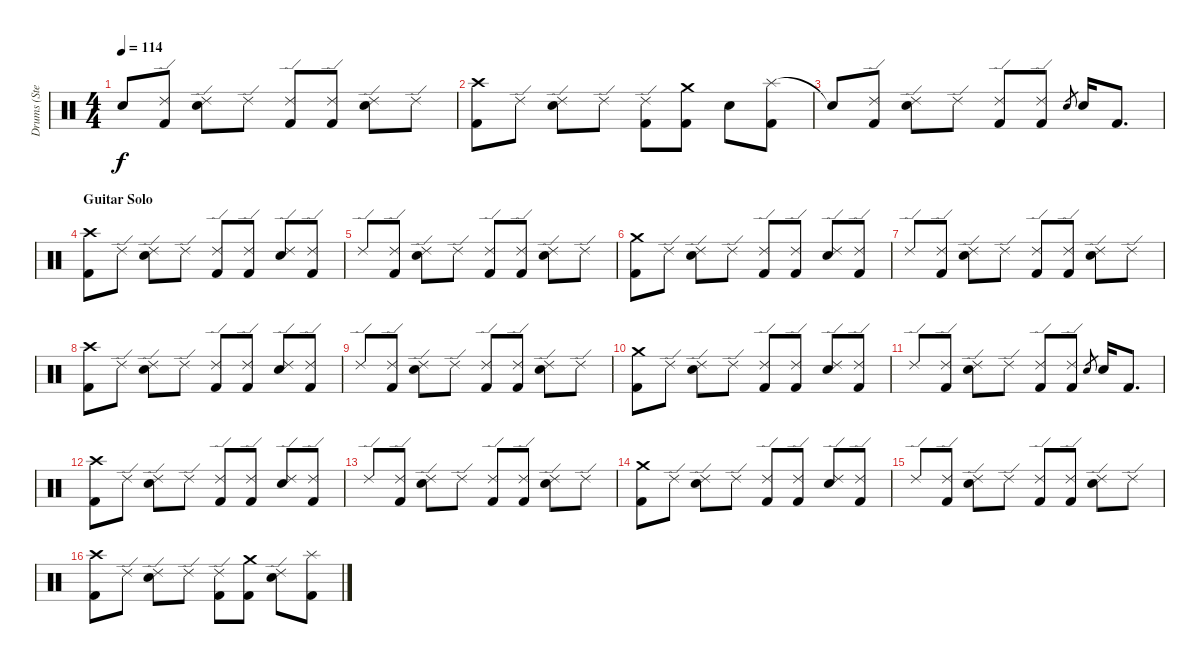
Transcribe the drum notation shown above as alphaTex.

\track ("Drums (Steven)" "Drums (Ste") {instrument percussion}
\staff {score}
\articulation defaults
\ts (4 4)
\tempo 114
\clef neutral
\ks c "Snare (hit)"{t}.8{dy f}
("Ride (edge) 2" "Kick (hit) 2").8 ("Ride (edge) 2" "Snare (hit) 2").8 "Ride (edge) 2".8 ("Ride (edge) 2" "Kick (hit) 2").8 ("Ride (edge) 2" "Kick (hit) 2").8 ("Ride (edge) 2" "Snare (hit) 2").8 "Ride (edge) 2".8 |
("Crash high (hit)" "Kick (hit) 2").8 "Ride (edge) 2".8 ("Ride (edge) 2" "Snare (hit) 2").8 "Ride (edge) 2".8 ("Ride (edge) 2" "Kick (hit) 2").8 ("Crash medium (hit)" "Kick (hit) 2").8 "Snare (hit) 2".8 ("Splash (hit)" "Kick (hit) 2").8 |
"Snare (hit)"{t}.8 ("Ride (edge) 2" "Kick (hit) 2").8 ("Ride (edge) 2" "Snare (hit) 2").8 "Ride (edge) 2".8 ("Ride (edge) 2" "Kick (hit) 2").8 ("Ride (edge) 2" "Kick (hit) 2").8 "Snare (hit) 2".8{gr} "Snare (hit) 2".16 "Kick (hit) 2".8{d} |
\section ("" "Guitar Solo")
("Crash high (hit)" "Kick (hit) 2").8 "Ride (edge) 2".8 ("Ride (edge) 2" "Snare (hit) 2").8 "Ride (edge) 2".8 ("Ride (edge) 2" "Kick (hit) 2").8 ("Ride (edge) 2" "Kick (hit) 2").8 ("Ride (edge) 2" "Snare (hit) 2").8 ("Ride (edge) 2" "Kick (hit) 2").8 |
"Ride (edge) 2".8 ("Ride (edge) 2" "Kick (hit) 2").8 ("Ride (edge) 2" "Snare (hit) 2").8 "Ride (edge) 2".8 ("Ride (edge) 2" "Kick (hit) 2").8 ("Ride (edge) 2" "Kick (hit) 2").8 ("Ride (edge) 2" "Snare (hit) 2").8 "Ride (edge) 2".8 |
("Crash medium (hit)" "Kick (hit) 2").8 "Ride (edge) 2".8 ("Ride (edge) 2" "Snare (hit) 2").8 "Ride (edge) 2".8 ("Ride (edge) 2" "Kick (hit) 2").8 ("Ride (edge) 2" "Kick (hit) 2").8 ("Ride (edge) 2" "Snare (hit) 2").8 ("Ride (edge) 2" "Kick (hit) 2").8 |
"Ride (edge) 2".8 ("Ride (edge) 2" "Kick (hit) 2").8 ("Ride (edge) 2" "Snare (hit) 2").8 "Ride (edge) 2".8 ("Ride (edge) 2" "Kick (hit) 2").8 ("Ride (edge) 2" "Kick (hit) 2").8 ("Ride (edge) 2" "Snare (hit) 2").8 "Ride (edge) 2".8 |
("Crash high (hit)" "Kick (hit) 2").8 "Ride (edge) 2".8 ("Ride (edge) 2" "Snare (hit) 2").8 "Ride (edge) 2".8 ("Ride (edge) 2" "Kick (hit) 2").8 ("Ride (edge) 2" "Kick (hit) 2").8 ("Ride (edge) 2" "Snare (hit) 2").8 ("Ride (edge) 2" "Kick (hit) 2").8 |
"Ride (edge) 2".8 ("Ride (edge) 2" "Kick (hit) 2").8 ("Ride (edge) 2" "Snare (hit) 2").8 "Ride (edge) 2".8 ("Ride (edge) 2" "Kick (hit) 2").8 ("Ride (edge) 2" "Kick (hit) 2").8 ("Ride (edge) 2" "Snare (hit) 2").8 "Ride (edge) 2".8 |
("Crash medium (hit)" "Kick (hit) 2").8 "Ride (edge) 2".8 ("Ride (edge) 2" "Snare (hit) 2").8 "Ride (edge) 2".8 ("Ride (edge) 2" "Kick (hit) 2").8 ("Ride (edge) 2" "Kick (hit) 2").8 ("Ride (edge) 2" "Snare (hit) 2").8 ("Ride (edge) 2" "Kick (hit) 2").8 |
"Ride (edge) 2".8 ("Ride (edge) 2" "Kick (hit) 2").8 ("Ride (edge) 2" "Snare (hit) 2").8 "Ride (edge) 2".8 ("Ride (edge) 2" "Kick (hit) 2").8 ("Ride (edge) 2" "Kick (hit) 2").8 "Snare (hit) 2".8{gr} "Snare (hit) 2".16 "Kick (hit) 2".8{d} |
("Crash high (hit)" "Kick (hit) 2").8 "Ride (edge) 2".8 ("Ride (edge) 2" "Snare (hit) 2").8 "Ride (edge) 2".8 ("Ride (edge) 2" "Kick (hit) 2").8 ("Ride (edge) 2" "Kick (hit) 2").8 ("Ride (edge) 2" "Snare (hit) 2").8 ("Ride (edge) 2" "Kick (hit) 2").8 |
"Ride (edge) 2".8 ("Ride (edge) 2" "Kick (hit) 2").8 ("Ride (edge) 2" "Snare (hit) 2").8 "Ride (edge) 2".8 ("Ride (edge) 2" "Kick (hit) 2").8 ("Ride (edge) 2" "Kick (hit) 2").8 ("Ride (edge) 2" "Snare (hit) 2").8 "Ride (edge) 2".8 |
("Crash medium (hit)" "Kick (hit) 2").8 "Ride (edge) 2".8 ("Ride (edge) 2" "Snare (hit) 2").8 "Ride (edge) 2".8 ("Ride (edge) 2" "Kick (hit) 2").8 ("Ride (edge) 2" "Kick (hit) 2").8 ("Ride (edge) 2" "Snare (hit) 2").8 ("Ride (edge) 2" "Kick (hit) 2").8 |
"Ride (edge) 2".8 ("Ride (edge) 2" "Kick (hit) 2").8 ("Ride (edge) 2" "Snare (hit) 2").8 "Ride (edge) 2".8 ("Ride (edge) 2" "Kick (hit) 2").8 ("Ride (edge) 2" "Kick (hit) 2").8 ("Ride (edge) 2" "Snare (hit) 2").8 "Ride (edge) 2".8 |
("Crash high (hit)" "Kick (hit) 2").8 "Ride (edge) 2".8 ("Ride (edge) 2" "Snare (hit) 2").8 "Ride (edge) 2".8 ("Ride (edge) 2" "Kick (hit) 2").8 ("Crash medium (hit)" "Kick (hit) 2").8 ("Ride (edge) 2" "Snare (hit) 2").8 ("Splash (hit)" "Kick (hit) 2").8
